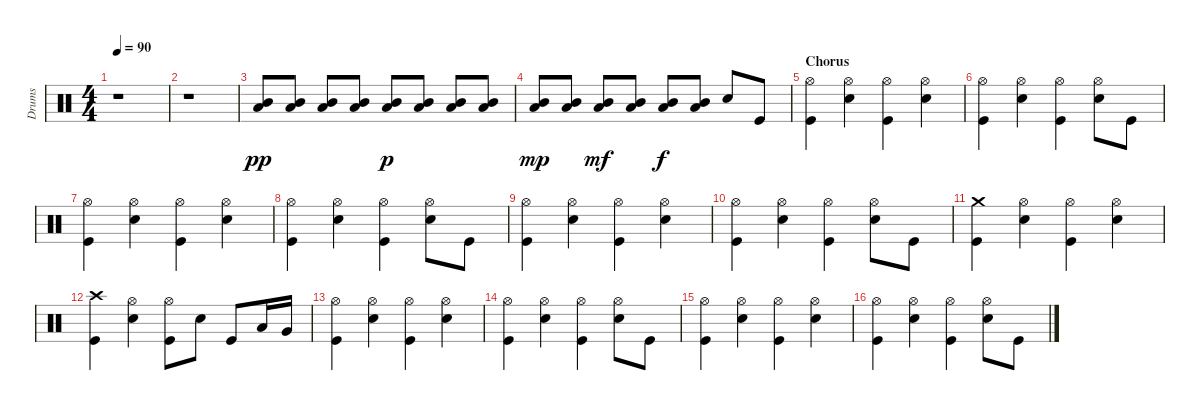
\track ("Drums" "Drums") {instrument percussion}
\staff {score}
\articulation defaults
\ts (4 4)
\tempo 90
\clef neutral
\ks c
r.1{dy pp} |
r.1 |
("Low Floor Tom (hit)" "Mid Tom (hit)").8 ("Low Floor Tom (hit)" "Mid Tom (hit)").8 ("Low Floor Tom (hit)" "Mid Tom (hit)").8 ("Low Floor Tom (hit)" "Mid Tom (hit)").8 ("Low Floor Tom (hit)" "Mid Tom (hit)").8{dy p} ("Low Floor Tom (hit)" "Mid Tom (hit)").8 ("Low Floor Tom (hit)" "Mid Tom (hit)").8 ("Low Floor Tom (hit)" "Mid Tom (hit)").8 |
("Low Floor Tom (hit)" "Mid Tom (hit)").8{dy mp} ("Low Floor Tom (hit)" "Mid Tom (hit)").8 ("Low Floor Tom (hit)" "Mid Tom (hit)").8{dy mf} ("Low Floor Tom (hit)" "Mid Tom (hit)").8 ("Low Floor Tom (hit)" "Mid Tom (hit)").8{dy f} ("Low Floor Tom (hit)" "Mid Tom (hit)").8 "Electric Snare (hit)".8 "Kick (hit)".8 |
\section ("" "Chorus")
("Hi-Hat (open)" "Kick (hit)").4 ("Hi-Hat (open)" "Electric Snare (hit)").4 ("Hi-Hat (open)" "Kick (hit)").4 ("Hi-Hat (open)" "Electric Snare (hit)").4 |
("Hi-Hat (open)" "Kick (hit)").4 ("Hi-Hat (open)" "Electric Snare (hit)").4 ("Hi-Hat (open)" "Kick (hit)").4 ("Hi-Hat (open)" "Electric Snare (hit)").8 "Kick (hit)".8 |
("Hi-Hat (open)" "Kick (hit)").4 ("Hi-Hat (open)" "Electric Snare (hit)").4 ("Hi-Hat (open)" "Kick (hit)").4 ("Hi-Hat (open)" "Electric Snare (hit)").4 |
("Hi-Hat (open)" "Kick (hit)").4 ("Hi-Hat (open)" "Electric Snare (hit)").4 ("Hi-Hat (open)" "Kick (hit)").4 ("Hi-Hat (open)" "Electric Snare (hit)").8 "Kick (hit)".8 |
("Hi-Hat (open)" "Kick (hit)").4 ("Hi-Hat (open)" "Electric Snare (hit)").4 ("Hi-Hat (open)" "Kick (hit)").4 ("Hi-Hat (open)" "Electric Snare (hit)").4 |
("Hi-Hat (open)" "Kick (hit)").4 ("Hi-Hat (open)" "Electric Snare (hit)").4 ("Hi-Hat (open)" "Kick (hit)").4 ("Hi-Hat (open)" "Electric Snare (hit)").8 "Kick (hit)".8 |
("Crash medium (hit)" "Kick (hit)").4 ("Hi-Hat (open)" "Electric Snare (hit)").4 ("Hi-Hat (open)" "Kick (hit)").4 ("Hi-Hat (open)" "Electric Snare (hit)").4 |
("Crash high (hit)" "Kick (hit)").4 ("Hi-Hat (open)" "Electric Snare (hit)").4 ("Hi-Hat (open)" "Kick (hit)").8 "Electric Snare (hit)".8 "Kick (hit)".8 "Low Tom (hit)".16 "Very Low Tom (hit)".16 |
("Hi-Hat (open)" "Kick (hit)").4 ("Hi-Hat (open)" "Electric Snare (hit)").4 ("Hi-Hat (open)" "Kick (hit)").4 ("Hi-Hat (open)" "Electric Snare (hit)").4 |
("Hi-Hat (open)" "Kick (hit)").4 ("Hi-Hat (open)" "Electric Snare (hit)").4 ("Hi-Hat (open)" "Kick (hit)").4 ("Hi-Hat (open)" "Electric Snare (hit)").8 "Kick (hit)".8 |
("Hi-Hat (open)" "Kick (hit)").4 ("Hi-Hat (open)" "Electric Snare (hit)").4 ("Hi-Hat (open)" "Kick (hit)").4 ("Hi-Hat (open)" "Electric Snare (hit)").4 |
("Hi-Hat (open)" "Kick (hit)").4 ("Hi-Hat (open)" "Electric Snare (hit)").4 ("Hi-Hat (open)" "Kick (hit)").4 ("Hi-Hat (open)" "Electric Snare (hit)").8 "Kick (hit)".8
